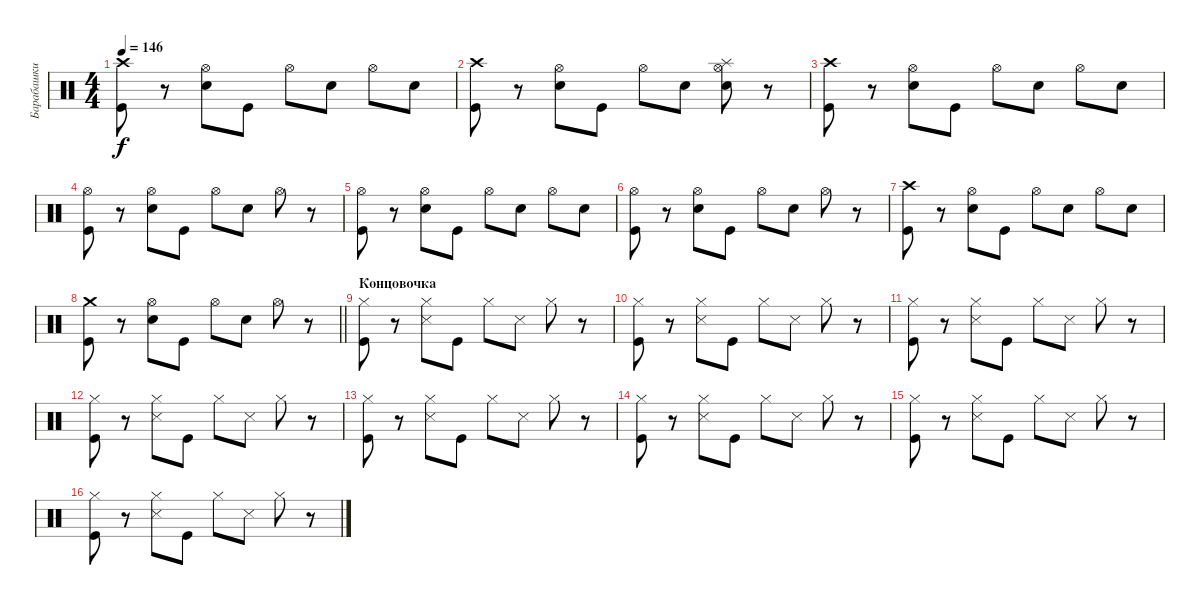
\track ("Барабашки" "Барабашки") {instrument percussion}
\staff {score}
\articulation defaults
\ts (4 4)
\tempo 146
\clef neutral
\ks c
("Crash high (hit)" "Kick (hit)").8{dy f} r.8 ("Hi-Hat (open)" "Snare (hit) 2").8 "Kick (hit)".8 "Hi-Hat (open)".8 "Snare (hit) 2".8 "Hi-Hat (open)".8 "Snare (hit) 2".8 |
("Crash high (hit)" "Kick (hit)").8 r.8 ("Hi-Hat (open)" "Snare (hit) 2").8 "Kick (hit)".8 "Hi-Hat (open)".8 "Snare (hit) 2".8 ("Hi-Hat (open)" "Splash (hit)" "Hand Clap (hit)").8 r.8 |
("Crash high (hit)" "Kick (hit)").8 r.8 ("Hi-Hat (open)" "Snare (hit) 2").8 "Kick (hit)".8 "Hi-Hat (open)".8 "Snare (hit) 2".8 "Hi-Hat (open)".8 "Snare (hit) 2".8 |
("Hi-Hat (open)" "Kick (hit)").8 r.8 ("Hi-Hat (open)" "Snare (hit) 2").8 "Kick (hit)".8 "Hi-Hat (open)".8 "Snare (hit) 2".8 "Hi-Hat (open)".8 r.8 |
("Hi-Hat (open)" "Kick (hit)").8 r.8 ("Hi-Hat (open)" "Snare (hit) 2").8 "Kick (hit)".8 "Hi-Hat (open)".8 "Snare (hit) 2".8 "Hi-Hat (open)".8 "Snare (hit) 2".8 |
("Hi-Hat (open)" "Kick (hit)").8 r.8 ("Hi-Hat (open)" "Snare (hit) 2").8 "Kick (hit)".8 "Hi-Hat (open)".8 "Snare (hit) 2".8 "Hi-Hat (open)".8 r.8 |
("Crash high (hit)" "Kick (hit)").8 r.8 ("Hi-Hat (open)" "Snare (hit) 2").8 "Kick (hit)".8 "Hi-Hat (open)".8 "Snare (hit) 2".8 "Hi-Hat (open)".8 "Snare (hit) 2".8 |
\barLineRight lightlight
("Crash medium (hit)" "Kick (hit)").8 r.8 ("Hi-Hat (open)" "Snare (hit) 2").8 "Kick (hit)".8 "Hi-Hat (open)".8 "Snare (hit) 2".8 "Hi-Hat (open)".8 r.8 |
\section ("" "Концовочка")
("Hi-Hat (closed)" "Kick (hit)").8 r.8 ("Hi-Hat (closed)" "Snare (side stick) 3").8 "Kick (hit)".8 "Hi-Hat (closed)".8 "Snare (side stick) 3".8 "Hi-Hat (closed)".8 r.8 |
("Hi-Hat (closed)" "Kick (hit)").8 r.8 ("Hi-Hat (closed)" "Snare (side stick) 3").8 "Kick (hit)".8 "Hi-Hat (closed)".8 "Snare (side stick) 3".8 "Hi-Hat (closed)".8 r.8 |
("Hi-Hat (closed)" "Kick (hit)").8 r.8 ("Hi-Hat (closed)" "Snare (side stick) 3").8 "Kick (hit)".8 "Hi-Hat (closed)".8 "Snare (side stick) 3".8 "Hi-Hat (closed)".8 r.8 |
("Hi-Hat (closed)" "Kick (hit)").8 r.8 ("Hi-Hat (closed)" "Snare (side stick) 3").8 "Kick (hit)".8 "Hi-Hat (closed)".8 "Snare (side stick) 3".8 "Hi-Hat (closed)".8 r.8 |
("Hi-Hat (closed)" "Kick (hit)").8 r.8 ("Hi-Hat (closed)" "Snare (side stick) 3").8 "Kick (hit)".8 "Hi-Hat (closed)".8 "Snare (side stick) 3".8 "Hi-Hat (closed)".8 r.8 |
("Hi-Hat (closed)" "Kick (hit)").8 r.8 ("Hi-Hat (closed)" "Snare (side stick) 3").8 "Kick (hit)".8 "Hi-Hat (closed)".8 "Snare (side stick) 3".8 "Hi-Hat (closed)".8 r.8 |
("Hi-Hat (closed)" "Kick (hit)").8 r.8 ("Hi-Hat (closed)" "Snare (side stick) 3").8 "Kick (hit)".8 "Hi-Hat (closed)".8 "Snare (side stick) 3".8 "Hi-Hat (closed)".8 r.8 |
("Hi-Hat (closed)" "Kick (hit)").8 r.8 ("Hi-Hat (closed)" "Snare (side stick) 3").8 "Kick (hit)".8 "Hi-Hat (closed)".8 "Snare (side stick) 3".8 "Hi-Hat (closed)".8 r.8
